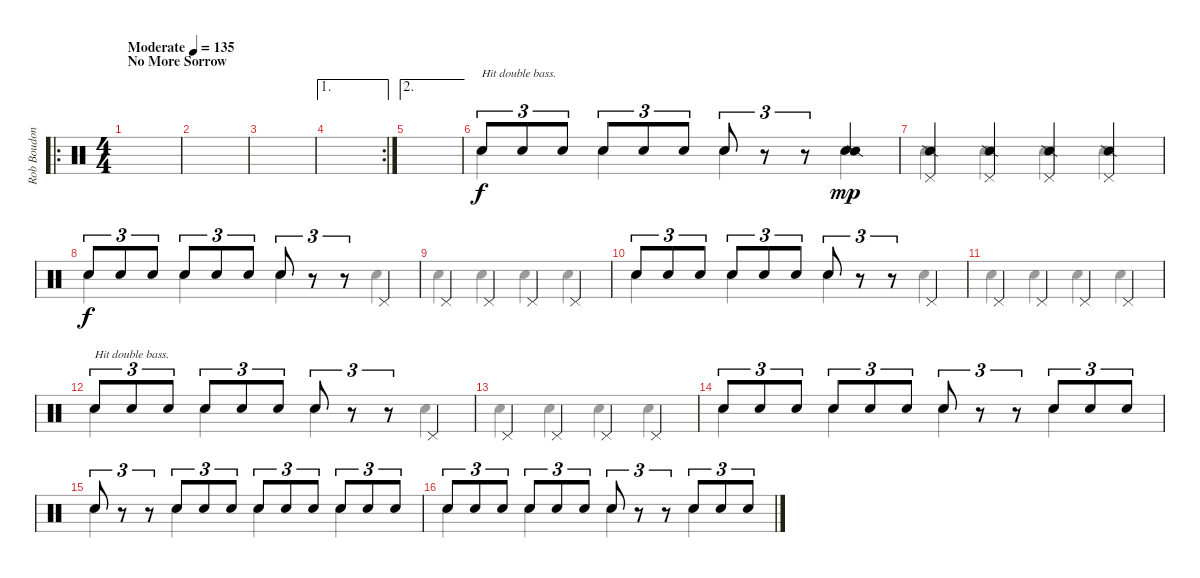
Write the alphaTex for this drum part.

\track ("Rob Boudon [Drums]" "Rob Boudon") {instrument percussion}
\staff {score}
\articulation defaults
\voice
\ro
\ts (4 4)
\section ("" "No More Sorrow")
\tempo (135 "Moderate")
\clef neutral
\ks c
|
|
|
\ae 1
\rc 2
|
\ae 2
|
"Snare (hit) 2".8{tu (3 2) txt "Hit double bass."} "Snare (hit) 2".8{tu (3 2)} "Snare (hit) 2".8{tu (3 2)} "Snare (hit) 2".8{tu (3 2)} "Snare (hit) 2".8{tu (3 2)} "Snare (hit) 2".8{tu (3 2)} "Snare (hit) 2".8{tu (3 2)} r.8{tu (3 2)} r.8{tu (3 2)} ("Hand Clap (hit)" "Snare (side stick) 2").4{bd 30 dy mp} |
("Pedal Hi-Hat (hit)" "Snare (side stick) 2").4{bu 30} ("Pedal Hi-Hat (hit)" "Snare (side stick) 2").4{bd 30} ("Pedal Hi-Hat (hit)" "Snare (side stick) 2").4{bu 30} ("Pedal Hi-Hat (hit)" "Snare (side stick) 2").4{bd 30} |
"Snare (hit) 2".8{tu (3 2) dy f} "Snare (hit) 2".8{tu (3 2)} "Snare (hit) 2".8{tu (3 2)} "Snare (hit) 2".8{tu (3 2)} "Snare (hit) 2".8{tu (3 2)} "Snare (hit) 2".8{tu (3 2)} "Snare (hit) 2".8{tu (3 2)} r.8{tu (3 2)} r.8{tu (3 2)} "Pedal Hi-Hat (hit)".4 |
"Pedal Hi-Hat (hit)".4 "Pedal Hi-Hat (hit)".4 "Pedal Hi-Hat (hit)".4 "Pedal Hi-Hat (hit)".4 |
"Snare (hit) 2".8{tu (3 2)} "Snare (hit) 2".8{tu (3 2)} "Snare (hit) 2".8{tu (3 2)} "Snare (hit) 2".8{tu (3 2)} "Snare (hit) 2".8{tu (3 2)} "Snare (hit) 2".8{tu (3 2)} "Snare (hit) 2".8{tu (3 2)} r.8{tu (3 2)} r.8{tu (3 2)} "Pedal Hi-Hat (hit)".4 |
"Pedal Hi-Hat (hit)".4 "Pedal Hi-Hat (hit)".4 "Pedal Hi-Hat (hit)".4 "Pedal Hi-Hat (hit)".4 |
"Snare (hit) 2".8{tu (3 2) txt "Hit double bass."} "Snare (hit) 2".8{tu (3 2)} "Snare (hit) 2".8{tu (3 2)} "Snare (hit) 2".8{tu (3 2)} "Snare (hit) 2".8{tu (3 2)} "Snare (hit) 2".8{tu (3 2)} "Snare (hit) 2".8{tu (3 2)} r.8{tu (3 2)} r.8{tu (3 2)} "Pedal Hi-Hat (hit)".4 |
"Pedal Hi-Hat (hit)".4 "Pedal Hi-Hat (hit)".4 "Pedal Hi-Hat (hit)".4 "Pedal Hi-Hat (hit)".4 |
"Snare (hit) 2".8{tu (3 2)} "Snare (hit) 2".8{tu (3 2)} "Snare (hit) 2".8{tu (3 2)} "Snare (hit) 2".8{tu (3 2)} "Snare (hit) 2".8{tu (3 2)} "Snare (hit) 2".8{tu (3 2)} "Snare (hit) 2".8{tu (3 2)} r.8{tu (3 2)} r.8{tu (3 2)} "Snare (hit) 2".8{tu (3 2)} "Snare (hit) 2".8{tu (3 2)} "Snare (hit) 2".8{tu (3 2)} |
"Snare (hit) 2".8{tu (3 2)} r.8{tu (3 2)} r.8{tu (3 2)} "Snare (hit) 2".8{tu (3 2)} "Snare (hit) 2".8{tu (3 2)} "Snare (hit) 2".8{tu (3 2)} "Snare (hit) 2".8{tu (3 2)} "Snare (hit) 2".8{tu (3 2)} "Snare (hit) 2".8{tu (3 2)} "Snare (hit) 2".8{tu (3 2)} "Snare (hit) 2".8{tu (3 2)} "Snare (hit) 2".8{tu (3 2)} |
"Snare (hit) 2".8{tu (3 2)} "Snare (hit) 2".8{tu (3 2)} "Snare (hit) 2".8{tu (3 2)} "Snare (hit) 2".8{tu (3 2)} "Snare (hit) 2".8{tu (3 2)} "Snare (hit) 2".8{tu (3 2)} "Snare (hit) 2".8{tu (3 2)} r.8{tu (3 2)} r.8{tu (3 2)} "Snare (hit) 2".8{tu (3 2)} "Snare (hit) 2".8{tu (3 2)} "Snare (hit) 2".8{tu (3 2)}
\voice
\clef neutral
\ottava regular
\simile none
\ks c
|
|
|
|
|
"Hand Clap (hit)".4 "Hand Clap (hit)".4 "Hand Clap (hit)".4 "Hand Clap (hit)".4 |
"Hand Clap (hit)".4 "Hand Clap (hit)".4 "Hand Clap (hit)".4 "Hand Clap (hit)".4 |
"Hand Clap (hit)".4 "Hand Clap (hit)".4 "Hand Clap (hit)".4 "Hand Clap (hit)".4 |
"Hand Clap (hit)".4 "Hand Clap (hit)".4 "Hand Clap (hit)".4 "Hand Clap (hit)".4 |
"Hand Clap (hit)".4 "Hand Clap (hit)".4 "Hand Clap (hit)".4 "Hand Clap (hit)".4 |
"Hand Clap (hit)".4 "Hand Clap (hit)".4 "Hand Clap (hit)".4 "Hand Clap (hit)".4 |
"Hand Clap (hit)".4 "Hand Clap (hit)".4 "Hand Clap (hit)".4 "Hand Clap (hit)".4 |
"Hand Clap (hit)".4 "Hand Clap (hit)".4 "Hand Clap (hit)".4 "Hand Clap (hit)".4 |
"Hand Clap (hit)".4 "Hand Clap (hit)".4 "Hand Clap (hit)".4 "Hand Clap (hit)".4 |
"Hand Clap (hit)".4 "Hand Clap (hit)".4 "Hand Clap (hit)".4 "Hand Clap (hit)".4 |
"Hand Clap (hit)".4 "Hand Clap (hit)".4 "Hand Clap (hit)".4 "Hand Clap (hit)".4
